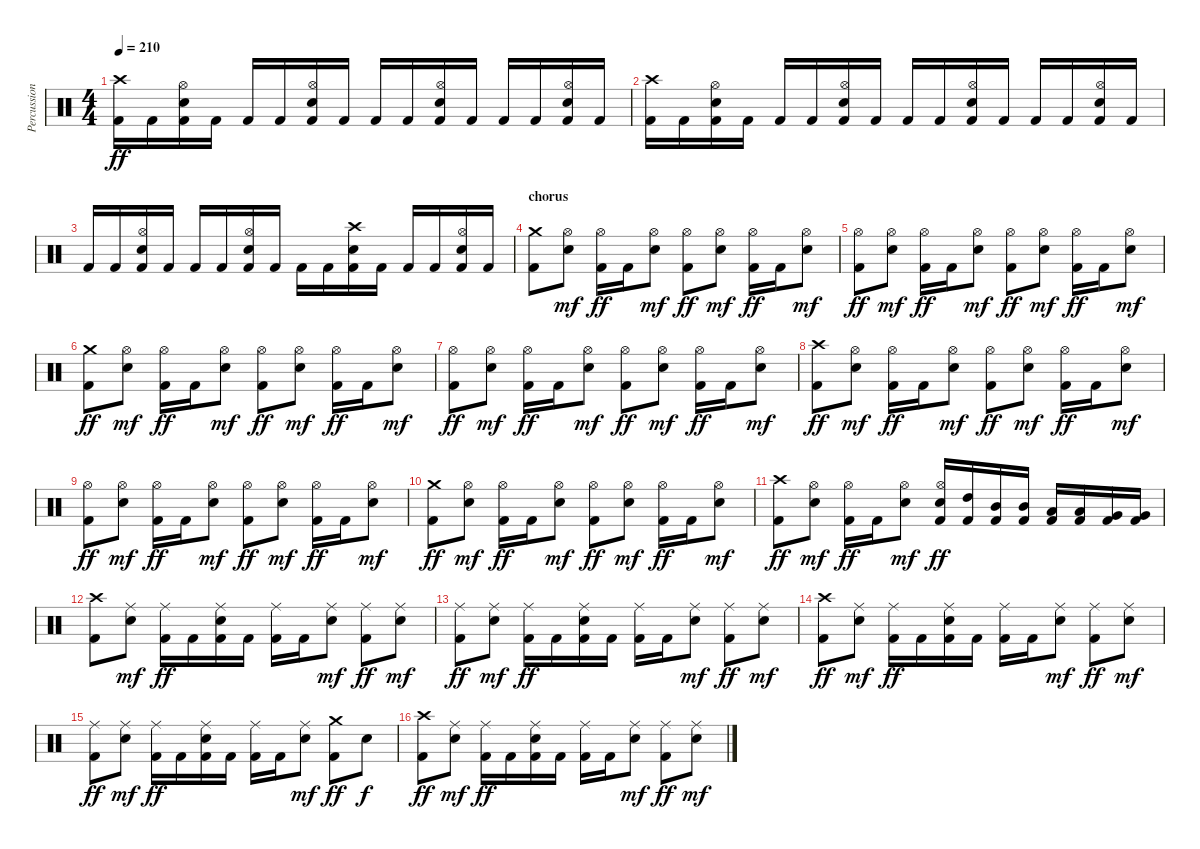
\track ("Percussion" "Percussion") {instrument percussion}
\staff {score}
\articulation defaults
\ts (4 4)
\tempo 210
\clef neutral
\ks c
("Crash high (hit)" "Kick (hit) 2").16{dy ff} "Kick (hit) 2".16 ("Hi-Hat (open)" "Snare (hit) 2" "Kick (hit) 2").16 "Kick (hit) 2".16 "Kick (hit) 2".16 "Kick (hit) 2".16 ("Hi-Hat (open)" "Snare (hit) 2" "Kick (hit) 2").16 "Kick (hit) 2".16 "Kick (hit) 2".16 "Kick (hit) 2".16 ("Hi-Hat (open)" "Snare (hit) 2" "Kick (hit) 2").16 "Kick (hit) 2".16 "Kick (hit) 2".16 "Kick (hit) 2".16 ("Hi-Hat (open)" "Snare (hit) 2" "Kick (hit) 2").16 "Kick (hit) 2".16 |
("Crash high (hit)" "Kick (hit) 2").16 "Kick (hit) 2".16 ("Hi-Hat (open)" "Snare (hit) 2" "Kick (hit) 2").16 "Kick (hit) 2".16 "Kick (hit) 2".16 "Kick (hit) 2".16 ("Hi-Hat (open)" "Snare (hit) 2" "Kick (hit) 2").16 "Kick (hit) 2".16 "Kick (hit) 2".16 "Kick (hit) 2".16 ("Hi-Hat (open)" "Snare (hit) 2" "Kick (hit) 2").16 "Kick (hit) 2".16 "Kick (hit) 2".16 "Kick (hit) 2".16 ("Hi-Hat (open)" "Snare (hit) 2" "Kick (hit) 2").16 "Kick (hit) 2".16 |
"Kick (hit) 2".16 "Kick (hit) 2".16 ("Hi-Hat (open)" "Snare (hit) 2" "Kick (hit) 2").16 "Kick (hit) 2".16 "Kick (hit) 2".16 "Kick (hit) 2".16 ("Hi-Hat (open)" "Snare (hit) 2" "Kick (hit) 2").16 "Kick (hit) 2".16 "Kick (hit) 2".16 "Kick (hit) 2".16 ("Crash high (hit)" "Snare (hit) 2" "Kick (hit) 2").16 "Kick (hit) 2".16 "Kick (hit) 2".16 "Kick (hit) 2".16 ("Hi-Hat (open)" "Snare (hit) 2" "Kick (hit) 2").16 "Kick (hit) 2".16 |
\section ("" "chorus")
("Crash medium (hit)" "Kick (hit) 2").8 ("Hi-Hat (open)" "Snare (hit) 2").8{dy mf} ("Hi-Hat (open)" "Kick (hit) 2").16{dy ff} "Kick (hit) 2".16 ("Hi-Hat (open)" "Snare (hit) 2").8{dy mf} ("Hi-Hat (open)" "Kick (hit) 2").8{dy ff} ("Hi-Hat (open)" "Snare (hit) 2").8{dy mf} ("Hi-Hat (open)" "Kick (hit) 2").16{dy ff} "Kick (hit) 2".16 ("Hi-Hat (open)" "Snare (hit) 2").8{dy mf} |
("Hi-Hat (open)" "Kick (hit) 2").8{dy ff} ("Hi-Hat (open)" "Snare (hit) 2").8{dy mf} ("Hi-Hat (open)" "Kick (hit) 2").16{dy ff} "Kick (hit) 2".16 ("Hi-Hat (open)" "Snare (hit) 2").8{dy mf} ("Hi-Hat (open)" "Kick (hit) 2").8{dy ff} ("Hi-Hat (open)" "Snare (hit) 2").8{dy mf} ("Hi-Hat (open)" "Kick (hit) 2").16{dy ff} "Kick (hit) 2".16 ("Hi-Hat (open)" "Snare (hit) 2").8{dy mf} |
("Crash medium (hit)" "Kick (hit) 2").8{dy ff} ("Hi-Hat (open)" "Snare (hit) 2").8{dy mf} ("Hi-Hat (open)" "Kick (hit) 2").16{dy ff} "Kick (hit) 2".16 ("Hi-Hat (open)" "Snare (hit) 2").8{dy mf} ("Hi-Hat (open)" "Kick (hit) 2").8{dy ff} ("Hi-Hat (open)" "Snare (hit) 2").8{dy mf} ("Hi-Hat (open)" "Kick (hit) 2").16{dy ff} "Kick (hit) 2".16 ("Hi-Hat (open)" "Snare (hit) 2").8{dy mf} |
("Hi-Hat (open)" "Kick (hit) 2").8{dy ff} ("Hi-Hat (open)" "Snare (hit) 2").8{dy mf} ("Hi-Hat (open)" "Kick (hit) 2").16{dy ff} "Kick (hit) 2".16 ("Hi-Hat (open)" "Snare (hit) 2").8{dy mf} ("Hi-Hat (open)" "Kick (hit) 2").8{dy ff} ("Hi-Hat (open)" "Snare (hit) 2").8{dy mf} ("Hi-Hat (open)" "Kick (hit) 2").16{dy ff} "Kick (hit) 2".16 ("Hi-Hat (open)" "Snare (hit) 2").8{dy mf} |
("Crash high (hit)" "Kick (hit) 2").8{dy ff} ("Hi-Hat (open)" "Snare (hit) 2").8{dy mf} ("Hi-Hat (open)" "Kick (hit) 2").16{dy ff} "Kick (hit) 2".16 ("Hi-Hat (open)" "Snare (hit) 2").8{dy mf} ("Hi-Hat (open)" "Kick (hit) 2").8{dy ff} ("Hi-Hat (open)" "Snare (hit) 2").8{dy mf} ("Hi-Hat (open)" "Kick (hit) 2").16{dy ff} "Kick (hit) 2".16 ("Hi-Hat (open)" "Snare (hit) 2").8{dy mf} |
("Hi-Hat (open)" "Kick (hit) 2").8{dy ff} ("Hi-Hat (open)" "Snare (hit) 2").8{dy mf} ("Hi-Hat (open)" "Kick (hit) 2").16{dy ff} "Kick (hit) 2".16 ("Hi-Hat (open)" "Snare (hit) 2").8{dy mf} ("Hi-Hat (open)" "Kick (hit) 2").8{dy ff} ("Hi-Hat (open)" "Snare (hit) 2").8{dy mf} ("Hi-Hat (open)" "Kick (hit) 2").16{dy ff} "Kick (hit) 2".16 ("Hi-Hat (open)" "Snare (hit) 2").8{dy mf} |
("Crash medium (hit)" "Kick (hit) 2").8{dy ff} ("Hi-Hat (open)" "Snare (hit) 2").8{dy mf} ("Hi-Hat (open)" "Kick (hit) 2").16{dy ff} "Kick (hit) 2".16 ("Hi-Hat (open)" "Snare (hit) 2").8{dy mf} ("Hi-Hat (open)" "Kick (hit) 2").8{dy ff} ("Hi-Hat (open)" "Snare (hit) 2").8{dy mf} ("Hi-Hat (open)" "Kick (hit) 2").16{dy ff} "Kick (hit) 2".16 ("Hi-Hat (open)" "Snare (hit) 2").8{dy mf} |
("Crash high (hit)" "Kick (hit) 2").8{dy ff} ("Hi-Hat (open)" "Snare (hit) 2").8{dy mf} ("Hi-Hat (open)" "Kick (hit) 2").16{dy ff} "Kick (hit) 2".16 ("Hi-Hat (open)" "Snare (hit) 2").8{dy mf} ("Hi-Hat (open)" "Snare (hit) 2" "Kick (hit) 2").16{dy ff} ("High Tom (hit)" "Kick (hit) 2").16 ("Mid Tom (hit)" "Kick (hit) 2").16 ("Mid Tom (hit)" "Kick (hit) 2").16 ("Low Tom (hit)" "Kick (hit) 2").16 ("Low Tom (hit)" "Kick (hit) 2").16 ("Very Low Tom (hit)" "Kick (hit) 2").16 ("Very Low Tom (hit)" "Kick (hit) 2").16 |
("Crash high (hit)" "Kick (hit) 2").8 ("Ride (middle)" "Snare (hit) 2").8{dy mf} ("Ride (middle)" "Kick (hit) 2").16{dy ff} "Kick (hit) 2".16 ("Ride (middle)" "Snare (hit) 2" "Kick (hit) 2").16 "Kick (hit) 2".16 ("Ride (middle)" "Kick (hit) 2").16 "Kick (hit) 2".16 ("Ride (middle)" "Snare (hit) 2").8{dy mf} ("Ride (middle)" "Kick (hit) 2").8{dy ff} ("Ride (middle)" "Snare (hit) 2").8{dy mf} |
("Ride (middle)" "Kick (hit) 2").8{dy ff} ("Ride (middle)" "Snare (hit) 2").8{dy mf} ("Ride (middle)" "Kick (hit) 2").16{dy ff} "Kick (hit) 2".16 ("Ride (middle)" "Snare (hit) 2" "Kick (hit) 2").16 "Kick (hit) 2".16 ("Ride (middle)" "Kick (hit) 2").16 "Kick (hit) 2".16 ("Ride (middle)" "Snare (hit) 2").8{dy mf} ("Ride (middle)" "Kick (hit) 2").8{dy ff} ("Ride (middle)" "Snare (hit) 2").8{dy mf} |
("Crash high (hit)" "Kick (hit) 2").8{dy ff} ("Ride (middle)" "Snare (hit) 2").8{dy mf} ("Ride (middle)" "Kick (hit) 2").16{dy ff} "Kick (hit) 2".16 ("Ride (middle)" "Snare (hit) 2" "Kick (hit) 2").16 "Kick (hit) 2".16 ("Ride (middle)" "Kick (hit) 2").16 "Kick (hit) 2".16 ("Ride (middle)" "Snare (hit) 2").8{dy mf} ("Ride (middle)" "Kick (hit) 2").8{dy ff} ("Ride (middle)" "Snare (hit) 2").8{dy mf} |
("Ride (middle)" "Kick (hit) 2").8{dy ff} ("Ride (middle)" "Snare (hit) 2").8{dy mf} ("Ride (middle)" "Kick (hit) 2").16{dy ff} "Kick (hit) 2".16 ("Ride (middle)" "Snare (hit) 2" "Kick (hit) 2").16 "Kick (hit) 2".16 ("Ride (middle)" "Kick (hit) 2").16 "Kick (hit) 2".16 ("Ride (middle)" "Snare (hit) 2").8{dy mf} ("Crash medium (hit)" "Kick (hit) 2").8{dy ff} "Snare (hit) 2".8{dy f} |
("Crash high (hit)" "Kick (hit) 2").8{dy ff} ("Ride (middle)" "Snare (hit) 2").8{dy mf} ("Ride (middle)" "Kick (hit) 2").16{dy ff} "Kick (hit) 2".16 ("Ride (middle)" "Snare (hit) 2" "Kick (hit) 2").16 "Kick (hit) 2".16 ("Ride (middle)" "Kick (hit) 2").16 "Kick (hit) 2".16 ("Ride (middle)" "Snare (hit) 2").8{dy mf} ("Ride (middle)" "Kick (hit) 2").8{dy ff} ("Ride (middle)" "Snare (hit) 2").8{dy mf}
